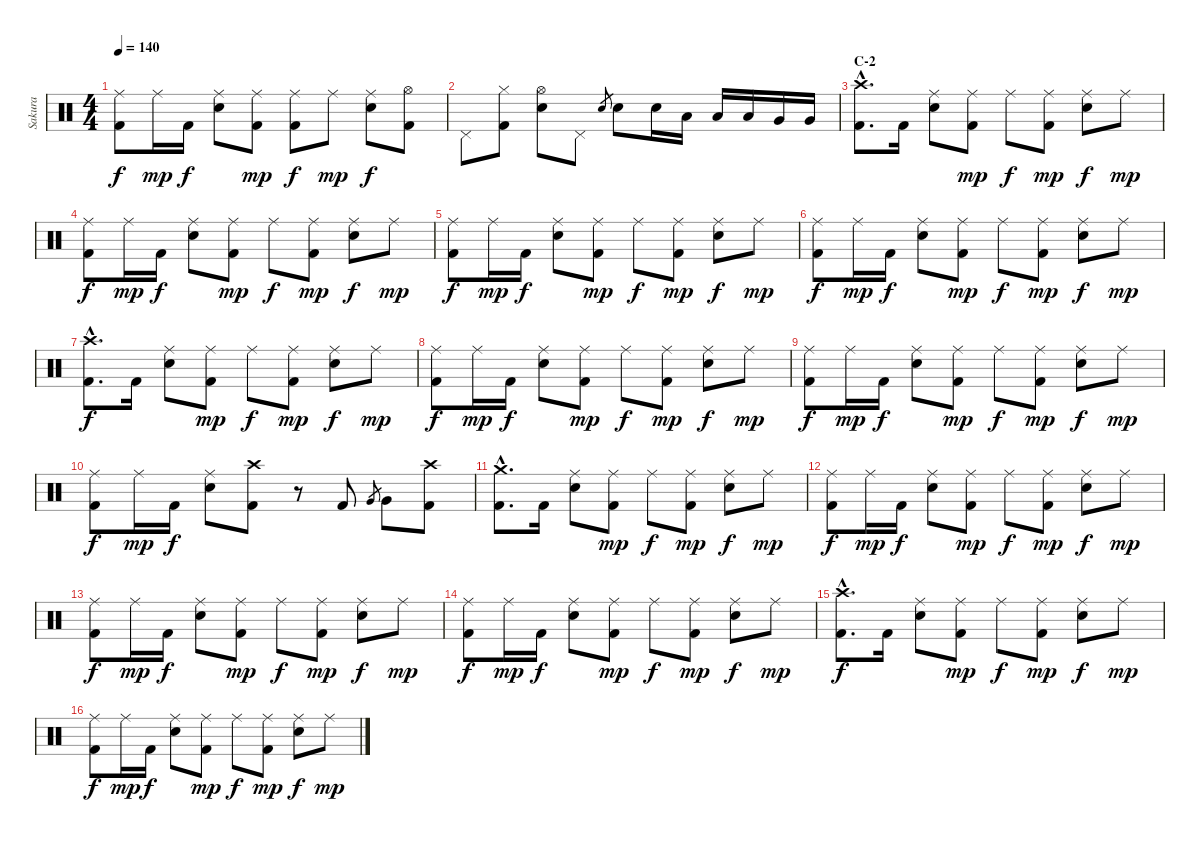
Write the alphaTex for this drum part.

\track ("Sakura" "Sakura") {instrument percussion}
\staff {score}
\articulation defaults
\ts (4 4)
\tempo 140
\clef neutral
\ks c
("Ride (middle)" "Kick (hit) 2").8{dy f} "Ride (middle)".16{dy mp} "Kick (hit) 2".16{dy f} ("Ride (middle)" "Electric Snare (hit)").8 ("Ride (middle)" "Kick (hit) 2").8{dy mp} ("Ride (middle)" "Kick (hit) 2").8{dy f} "Ride (middle)".8{dy mp} ("Ride (middle)" "Electric Snare (hit)").8{dy f} ("Hi-Hat (open)" "Kick (hit) 2").8 |
"Pedal Hi-Hat (hit)".8 ("Hi-Hat (closed)" "Kick (hit) 2").8 ("Hi-Hat (open)" "Electric Snare (hit)").8 "Pedal Hi-Hat (hit)".8 "Electric Snare (hit)".8{gr} "Electric Snare (hit)".8 "Electric Snare (hit)".16 "Low Tom (hit)".16 "Low Tom (hit)".16 "Low Tom (hit)".16 "Very Low Tom (hit)".16 "Very Low Tom (hit)".16 |
\section ("" "C-2")
("Crash high (hit)"{hac} "Kick (hit) 2"{hac}).8{d} "Kick (hit) 2".16 ("Ride (middle)" "Electric Snare (hit)").8 ("Ride (middle)" "Kick (hit) 2").8{dy mp} "Ride (middle)".8{dy f} ("Ride (middle)" "Kick (hit) 2").8{dy mp} ("Ride (middle)" "Electric Snare (hit)").8{dy f} "Ride (middle)".8{dy mp} |
("Ride (middle)" "Kick (hit) 2").8{dy f} "Ride (middle)".16{dy mp} "Kick (hit) 2".16{dy f} ("Ride (middle)" "Electric Snare (hit)").8 ("Ride (middle)" "Kick (hit) 2").8{dy mp} "Ride (middle)".8{dy f} ("Ride (middle)" "Kick (hit) 2").8{dy mp} ("Ride (middle)" "Electric Snare (hit)").8{dy f} "Ride (middle)".8{dy mp} |
("Ride (middle)" "Kick (hit) 2").8{dy f} "Ride (middle)".16{dy mp} "Kick (hit) 2".16{dy f} ("Ride (middle)" "Electric Snare (hit)").8 ("Ride (middle)" "Kick (hit) 2").8{dy mp} "Ride (middle)".8{dy f} ("Ride (middle)" "Kick (hit) 2").8{dy mp} ("Ride (middle)" "Electric Snare (hit)").8{dy f} "Ride (middle)".8{dy mp} |
("Ride (middle)" "Kick (hit) 2").8{dy f} "Ride (middle)".16{dy mp} "Kick (hit) 2".16{dy f} ("Ride (middle)" "Electric Snare (hit)").8 ("Ride (middle)" "Kick (hit) 2").8{dy mp} "Ride (middle)".8{dy f} ("Ride (middle)" "Kick (hit) 2").8{dy mp} ("Ride (middle)" "Electric Snare (hit)").8{dy f} "Ride (middle)".8{dy mp} |
("Crash high (hit)"{hac} "Kick (hit) 2"{hac}).8{d dy f} "Kick (hit) 2".16 ("Ride (middle)" "Electric Snare (hit)").8 ("Ride (middle)" "Kick (hit) 2").8{dy mp} "Ride (middle)".8{dy f} ("Ride (middle)" "Kick (hit) 2").8{dy mp} ("Ride (middle)" "Electric Snare (hit)").8{dy f} "Ride (middle)".8{dy mp} |
("Ride (middle)" "Kick (hit) 2").8{dy f} "Ride (middle)".16{dy mp} "Kick (hit) 2".16{dy f} ("Ride (middle)" "Electric Snare (hit)").8 ("Ride (middle)" "Kick (hit) 2").8{dy mp} "Ride (middle)".8{dy f} ("Ride (middle)" "Kick (hit) 2").8{dy mp} ("Ride (middle)" "Electric Snare (hit)").8{dy f} "Ride (middle)".8{dy mp} |
("Ride (middle)" "Kick (hit) 2").8{dy f} "Ride (middle)".16{dy mp} "Kick (hit) 2".16{dy f} ("Ride (middle)" "Electric Snare (hit)").8 ("Ride (middle)" "Kick (hit) 2").8{dy mp} "Ride (middle)".8{dy f} ("Ride (middle)" "Kick (hit) 2").8{dy mp} ("Ride (middle)" "Electric Snare (hit)").8{dy f} "Ride (middle)".8{dy mp} |
("Ride (middle)" "Kick (hit) 2").8{dy f} "Ride (middle)".16{dy mp} "Kick (hit) 2".16{dy f} ("Ride (middle)" "Electric Snare (hit)").8 ("Crash high (hit)" "Kick (hit) 2").8 r.8 "Kick (hit) 2".8 "Very Low Tom (hit)".8{gr} "Very Low Tom (hit)".8 ("Crash high (hit)" "Kick (hit) 2").8 |
("Crash medium (hit)"{hac} "Kick (hit) 2"{hac}).8{d} "Kick (hit) 2".16 ("Ride (middle)" "Electric Snare (hit)").8 ("Ride (middle)" "Kick (hit) 2").8{dy mp} "Ride (middle)".8{dy f} ("Ride (middle)" "Kick (hit) 2").8{dy mp} ("Ride (middle)" "Electric Snare (hit)").8{dy f} "Ride (middle)".8{dy mp} |
("Ride (middle)" "Kick (hit) 2").8{dy f} "Ride (middle)".16{dy mp} "Kick (hit) 2".16{dy f} ("Ride (middle)" "Electric Snare (hit)").8 ("Ride (middle)" "Kick (hit) 2").8{dy mp} "Ride (middle)".8{dy f} ("Ride (middle)" "Kick (hit) 2").8{dy mp} ("Ride (middle)" "Electric Snare (hit)").8{dy f} "Ride (middle)".8{dy mp} |
("Ride (middle)" "Kick (hit) 2").8{dy f} "Ride (middle)".16{dy mp} "Kick (hit) 2".16{dy f} ("Ride (middle)" "Electric Snare (hit)").8 ("Ride (middle)" "Kick (hit) 2").8{dy mp} "Ride (middle)".8{dy f} ("Ride (middle)" "Kick (hit) 2").8{dy mp} ("Ride (middle)" "Electric Snare (hit)").8{dy f} "Ride (middle)".8{dy mp} |
("Ride (middle)" "Kick (hit) 2").8{dy f} "Ride (middle)".16{dy mp} "Kick (hit) 2".16{dy f} ("Ride (middle)" "Electric Snare (hit)").8 ("Ride (middle)" "Kick (hit) 2").8{dy mp} "Ride (middle)".8{dy f} ("Ride (middle)" "Kick (hit) 2").8{dy mp} ("Ride (middle)" "Electric Snare (hit)").8{dy f} "Ride (middle)".8{dy mp} |
("Crash high (hit)"{hac} "Kick (hit) 2"{hac}).8{d dy f} "Kick (hit) 2".16 ("Ride (middle)" "Electric Snare (hit)").8 ("Ride (middle)" "Kick (hit) 2").8{dy mp} "Ride (middle)".8{dy f} ("Ride (middle)" "Kick (hit) 2").8{dy mp} ("Ride (middle)" "Electric Snare (hit)").8{dy f} "Ride (middle)".8{dy mp} |
("Ride (middle)" "Kick (hit) 2").8{dy f} "Ride (middle)".16{dy mp} "Kick (hit) 2".16{dy f} ("Ride (middle)" "Electric Snare (hit)").8 ("Ride (middle)" "Kick (hit) 2").8{dy mp} "Ride (middle)".8{dy f} ("Ride (middle)" "Kick (hit) 2").8{dy mp} ("Ride (middle)" "Electric Snare (hit)").8{dy f} "Ride (middle)".8{dy mp}
